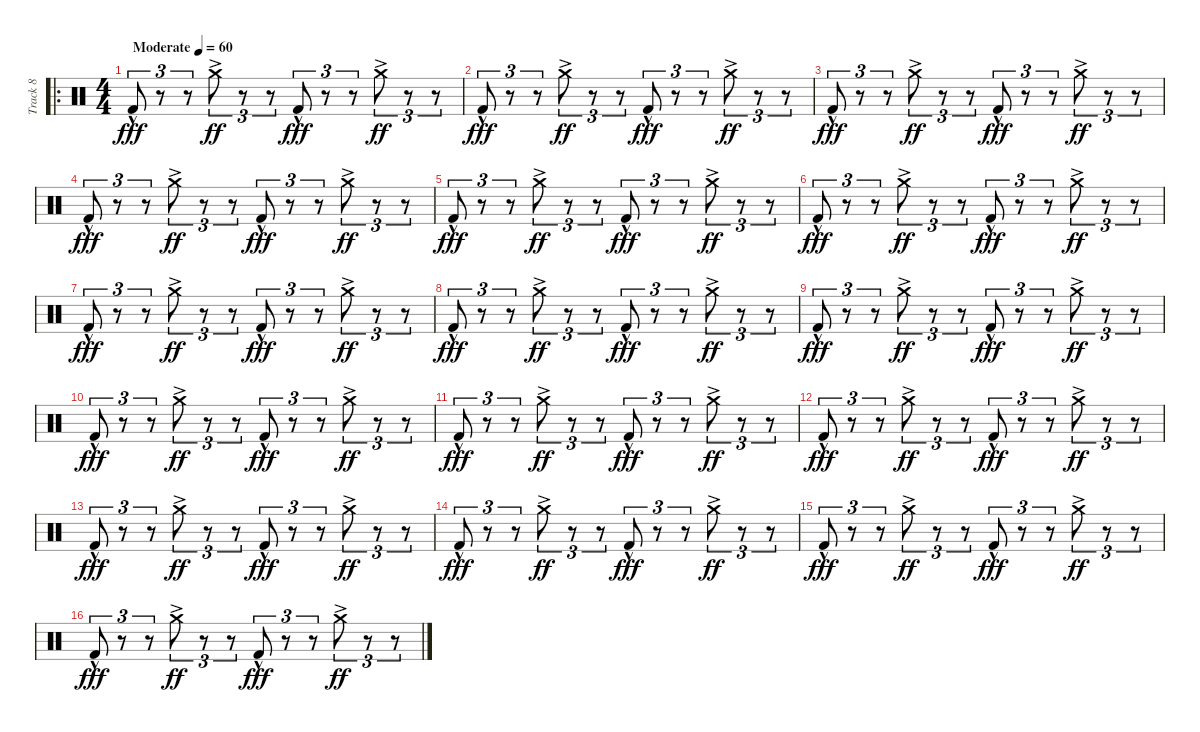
\track ("Track 8" "Track 8") {instrument percussion}
\staff {score}
\articulation defaults
\ro
\ts (4 4)
\tempo (60 "Moderate")
\clef neutral
\ks c "Kick (hit) 2"{hac}.8{tu (3 2) dy fff}
r.8{tu (3 2)} r.8{tu (3 2)} "Crash medium (hit)"{ac}.8{tu (3 2) dy ff} r.8{tu (3 2)} r.8{tu (3 2)} "Kick (hit) 2"{hac}.8{tu (3 2) dy fff} r.8{tu (3 2)} r.8{tu (3 2)} "Crash medium (hit)"{ac}.8{tu (3 2) dy ff} r.8{tu (3 2)} r.8{tu (3 2)} |
"Kick (hit) 2"{hac}.8{tu (3 2) dy fff} r.8{tu (3 2)} r.8{tu (3 2)} "Crash medium (hit)"{ac}.8{tu (3 2) dy ff} r.8{tu (3 2)} r.8{tu (3 2)} "Kick (hit) 2"{hac}.8{tu (3 2) dy fff} r.8{tu (3 2)} r.8{tu (3 2)} "Crash medium (hit)"{ac}.8{tu (3 2) dy ff} r.8{tu (3 2)} r.8{tu (3 2)} |
"Kick (hit) 2"{hac}.8{tu (3 2) dy fff} r.8{tu (3 2)} r.8{tu (3 2)} "Crash medium (hit)"{ac}.8{tu (3 2) dy ff} r.8{tu (3 2)} r.8{tu (3 2)} "Kick (hit) 2"{hac}.8{tu (3 2) dy fff} r.8{tu (3 2)} r.8{tu (3 2)} "Crash medium (hit)"{ac}.8{tu (3 2) dy ff} r.8{tu (3 2)} r.8{tu (3 2)} |
"Kick (hit) 2"{hac}.8{tu (3 2) dy fff} r.8{tu (3 2)} r.8{tu (3 2)} "Crash medium (hit)"{ac}.8{tu (3 2) dy ff} r.8{tu (3 2)} r.8{tu (3 2)} "Kick (hit) 2"{hac}.8{tu (3 2) dy fff} r.8{tu (3 2)} r.8{tu (3 2)} "Crash medium (hit)"{ac}.8{tu (3 2) dy ff} r.8{tu (3 2)} r.8{tu (3 2)} |
"Kick (hit) 2"{hac}.8{tu (3 2) dy fff} r.8{tu (3 2)} r.8{tu (3 2)} "Crash medium (hit)"{ac}.8{tu (3 2) dy ff} r.8{tu (3 2)} r.8{tu (3 2)} "Kick (hit) 2"{hac}.8{tu (3 2) dy fff} r.8{tu (3 2)} r.8{tu (3 2)} "Crash medium (hit)"{ac}.8{tu (3 2) dy ff} r.8{tu (3 2)} r.8{tu (3 2)} |
"Kick (hit) 2"{hac}.8{tu (3 2) dy fff} r.8{tu (3 2)} r.8{tu (3 2)} "Crash medium (hit)"{ac}.8{tu (3 2) dy ff} r.8{tu (3 2)} r.8{tu (3 2)} "Kick (hit) 2"{hac}.8{tu (3 2) dy fff} r.8{tu (3 2)} r.8{tu (3 2)} "Crash medium (hit)"{ac}.8{tu (3 2) dy ff} r.8{tu (3 2)} r.8{tu (3 2)} |
"Kick (hit) 2"{hac}.8{tu (3 2) dy fff} r.8{tu (3 2)} r.8{tu (3 2)} "Crash medium (hit)"{ac}.8{tu (3 2) dy ff} r.8{tu (3 2)} r.8{tu (3 2)} "Kick (hit) 2"{hac}.8{tu (3 2) dy fff} r.8{tu (3 2)} r.8{tu (3 2)} "Crash medium (hit)"{ac}.8{tu (3 2) dy ff} r.8{tu (3 2)} r.8{tu (3 2)} |
"Kick (hit) 2"{hac}.8{tu (3 2) dy fff} r.8{tu (3 2)} r.8{tu (3 2)} "Crash medium (hit)"{ac}.8{tu (3 2) dy ff} r.8{tu (3 2)} r.8{tu (3 2)} "Kick (hit) 2"{hac}.8{tu (3 2) dy fff} r.8{tu (3 2)} r.8{tu (3 2)} "Crash medium (hit)"{ac}.8{tu (3 2) dy ff} r.8{tu (3 2)} r.8{tu (3 2)} |
"Kick (hit) 2"{hac}.8{tu (3 2) dy fff} r.8{tu (3 2)} r.8{tu (3 2)} "Crash medium (hit)"{ac}.8{tu (3 2) dy ff} r.8{tu (3 2)} r.8{tu (3 2)} "Kick (hit) 2"{hac}.8{tu (3 2) dy fff} r.8{tu (3 2)} r.8{tu (3 2)} "Crash medium (hit)"{ac}.8{tu (3 2) dy ff} r.8{tu (3 2)} r.8{tu (3 2)} |
"Kick (hit) 2"{hac}.8{tu (3 2) dy fff} r.8{tu (3 2)} r.8{tu (3 2)} "Crash medium (hit)"{ac}.8{tu (3 2) dy ff} r.8{tu (3 2)} r.8{tu (3 2)} "Kick (hit) 2"{hac}.8{tu (3 2) dy fff} r.8{tu (3 2)} r.8{tu (3 2)} "Crash medium (hit)"{ac}.8{tu (3 2) dy ff} r.8{tu (3 2)} r.8{tu (3 2)} |
"Kick (hit) 2"{hac}.8{tu (3 2) dy fff} r.8{tu (3 2)} r.8{tu (3 2)} "Crash medium (hit)"{ac}.8{tu (3 2) dy ff} r.8{tu (3 2)} r.8{tu (3 2)} "Kick (hit) 2"{hac}.8{tu (3 2) dy fff} r.8{tu (3 2)} r.8{tu (3 2)} "Crash medium (hit)"{ac}.8{tu (3 2) dy ff} r.8{tu (3 2)} r.8{tu (3 2)} |
"Kick (hit) 2"{hac}.8{tu (3 2) dy fff} r.8{tu (3 2)} r.8{tu (3 2)} "Crash medium (hit)"{ac}.8{tu (3 2) dy ff} r.8{tu (3 2)} r.8{tu (3 2)} "Kick (hit) 2"{hac}.8{tu (3 2) dy fff} r.8{tu (3 2)} r.8{tu (3 2)} "Crash medium (hit)"{ac}.8{tu (3 2) dy ff} r.8{tu (3 2)} r.8{tu (3 2)} |
"Kick (hit) 2"{hac}.8{tu (3 2) dy fff} r.8{tu (3 2)} r.8{tu (3 2)} "Crash medium (hit)"{ac}.8{tu (3 2) dy ff} r.8{tu (3 2)} r.8{tu (3 2)} "Kick (hit) 2"{hac}.8{tu (3 2) dy fff} r.8{tu (3 2)} r.8{tu (3 2)} "Crash medium (hit)"{ac}.8{tu (3 2) dy ff} r.8{tu (3 2)} r.8{tu (3 2)} |
"Kick (hit) 2"{hac}.8{tu (3 2) dy fff} r.8{tu (3 2)} r.8{tu (3 2)} "Crash medium (hit)"{ac}.8{tu (3 2) dy ff} r.8{tu (3 2)} r.8{tu (3 2)} "Kick (hit) 2"{hac}.8{tu (3 2) dy fff} r.8{tu (3 2)} r.8{tu (3 2)} "Crash medium (hit)"{ac}.8{tu (3 2) dy ff} r.8{tu (3 2)} r.8{tu (3 2)} |
"Kick (hit) 2"{hac}.8{tu (3 2) dy fff} r.8{tu (3 2)} r.8{tu (3 2)} "Crash medium (hit)"{ac}.8{tu (3 2) dy ff} r.8{tu (3 2)} r.8{tu (3 2)} "Kick (hit) 2"{hac}.8{tu (3 2) dy fff} r.8{tu (3 2)} r.8{tu (3 2)} "Crash medium (hit)"{ac}.8{tu (3 2) dy ff} r.8{tu (3 2)} r.8{tu (3 2)} |
"Kick (hit) 2"{hac}.8{tu (3 2) dy fff} r.8{tu (3 2)} r.8{tu (3 2)} "Crash medium (hit)"{ac}.8{tu (3 2) dy ff} r.8{tu (3 2)} r.8{tu (3 2)} "Kick (hit) 2"{hac}.8{tu (3 2) dy fff} r.8{tu (3 2)} r.8{tu (3 2)} "Crash medium (hit)"{ac}.8{tu (3 2) dy ff} r.8{tu (3 2)} r.8{tu (3 2)}
